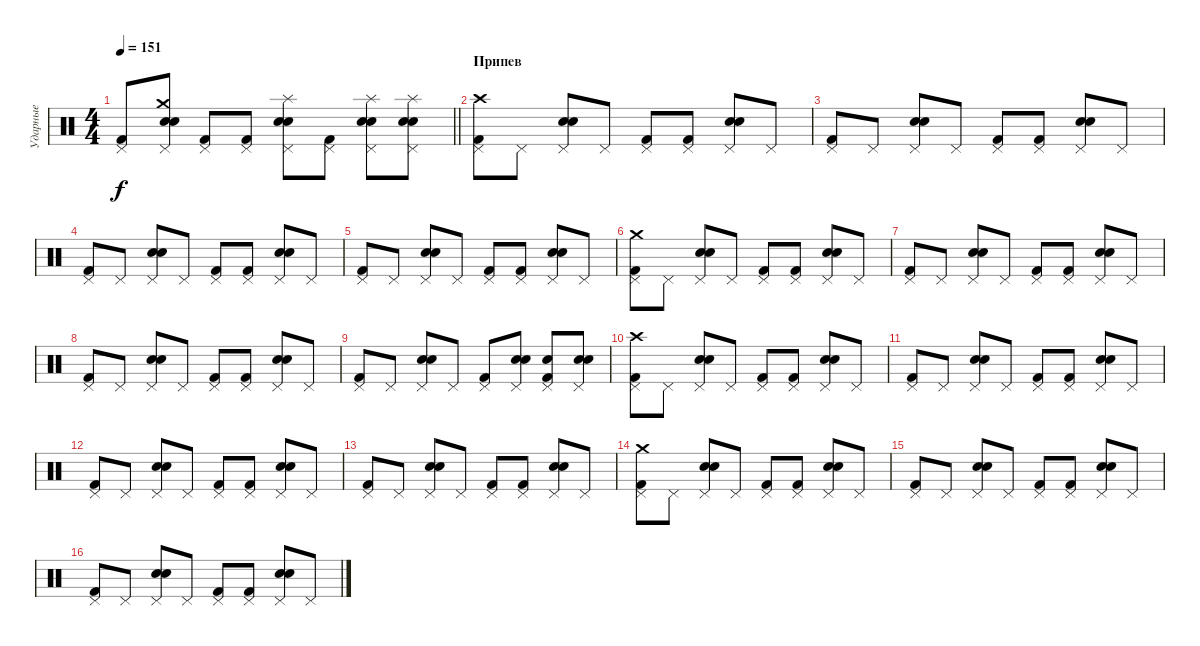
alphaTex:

\track ("Ударные" "Ударные") {instrument percussion}
\staff {score}
\articulation defaults
\ts (4 4)
\tempo 151
\clef neutral
\barLineRight lightlight
\ks c
("Pedal Hi-Hat (hit)" "Kick (hit) 2").8{dy f} ("Pedal Hi-Hat (hit)" "Crash medium (hit)" "Electric Snare (hit)" "Snare (hit) 2").8 ("Pedal Hi-Hat (hit)" "Kick (hit) 2").8 ("Pedal Hi-Hat (hit)" "Kick (hit) 2").8 ("Pedal Hi-Hat (hit)" "Splash (hit)" "Electric Snare (hit)" "Snare (hit) 2").8 ("Pedal Hi-Hat (hit)" "Kick (hit) 2").8 ("Pedal Hi-Hat (hit)" "Splash (hit)" "Electric Snare (hit)" "Snare (hit) 2").8 ("Pedal Hi-Hat (hit)" "Splash (hit)" "Electric Snare (hit)" "Snare (hit) 2").8 |
\section ("" "Припев")
("Pedal Hi-Hat (hit)" "Crash high (hit)" "Kick (hit) 2").8 "Pedal Hi-Hat (hit)".8 ("Pedal Hi-Hat (hit)" "Electric Snare (hit)" "Snare (hit) 2").8 "Pedal Hi-Hat (hit)".8 ("Pedal Hi-Hat (hit)" "Kick (hit) 2").8 ("Pedal Hi-Hat (hit)" "Kick (hit) 2").8 ("Pedal Hi-Hat (hit)" "Electric Snare (hit)" "Snare (hit) 2").8 "Pedal Hi-Hat (hit)".8 |
("Pedal Hi-Hat (hit)" "Kick (hit) 2").8 "Pedal Hi-Hat (hit)".8 ("Pedal Hi-Hat (hit)" "Electric Snare (hit)" "Snare (hit) 2").8 "Pedal Hi-Hat (hit)".8 ("Pedal Hi-Hat (hit)" "Kick (hit) 2").8 ("Pedal Hi-Hat (hit)" "Kick (hit) 2").8 ("Pedal Hi-Hat (hit)" "Electric Snare (hit)" "Snare (hit) 2").8 "Pedal Hi-Hat (hit)".8 |
("Pedal Hi-Hat (hit)" "Kick (hit) 2").8 "Pedal Hi-Hat (hit)".8 ("Pedal Hi-Hat (hit)" "Electric Snare (hit)" "Snare (hit) 2").8 "Pedal Hi-Hat (hit)".8 ("Pedal Hi-Hat (hit)" "Kick (hit) 2").8 ("Pedal Hi-Hat (hit)" "Kick (hit) 2").8 ("Pedal Hi-Hat (hit)" "Electric Snare (hit)" "Snare (hit) 2").8 "Pedal Hi-Hat (hit)".8 |
("Pedal Hi-Hat (hit)" "Kick (hit) 2").8 "Pedal Hi-Hat (hit)".8 ("Pedal Hi-Hat (hit)" "Electric Snare (hit)" "Snare (hit) 2").8 "Pedal Hi-Hat (hit)".8 ("Pedal Hi-Hat (hit)" "Kick (hit) 2").8 ("Pedal Hi-Hat (hit)" "Kick (hit) 2").8 ("Pedal Hi-Hat (hit)" "Electric Snare (hit)" "Snare (hit) 2").8 "Pedal Hi-Hat (hit)".8 |
("Pedal Hi-Hat (hit)" "Crash medium (hit)" "Kick (hit) 2").8 "Pedal Hi-Hat (hit)".8 ("Pedal Hi-Hat (hit)" "Electric Snare (hit)" "Snare (hit) 2").8 "Pedal Hi-Hat (hit)".8 ("Pedal Hi-Hat (hit)" "Kick (hit) 2").8 ("Pedal Hi-Hat (hit)" "Kick (hit) 2").8 ("Pedal Hi-Hat (hit)" "Electric Snare (hit)" "Snare (hit) 2").8 "Pedal Hi-Hat (hit)".8 |
("Pedal Hi-Hat (hit)" "Kick (hit) 2").8 "Pedal Hi-Hat (hit)".8 ("Pedal Hi-Hat (hit)" "Electric Snare (hit)" "Snare (hit) 2").8 "Pedal Hi-Hat (hit)".8 ("Pedal Hi-Hat (hit)" "Kick (hit) 2").8 ("Pedal Hi-Hat (hit)" "Kick (hit) 2").8 ("Pedal Hi-Hat (hit)" "Electric Snare (hit)" "Snare (hit) 2").8 "Pedal Hi-Hat (hit)".8 |
("Pedal Hi-Hat (hit)" "Kick (hit) 2").8 "Pedal Hi-Hat (hit)".8 ("Pedal Hi-Hat (hit)" "Electric Snare (hit)" "Snare (hit) 2").8 "Pedal Hi-Hat (hit)".8 ("Pedal Hi-Hat (hit)" "Kick (hit) 2").8 ("Pedal Hi-Hat (hit)" "Kick (hit) 2").8 ("Pedal Hi-Hat (hit)" "Electric Snare (hit)" "Snare (hit) 2").8 "Pedal Hi-Hat (hit)".8 |
("Pedal Hi-Hat (hit)" "Kick (hit) 2").8 "Pedal Hi-Hat (hit)".8 ("Pedal Hi-Hat (hit)" "Electric Snare (hit)" "Snare (hit) 2").8 "Pedal Hi-Hat (hit)".8 ("Pedal Hi-Hat (hit)" "Kick (hit) 2").8 ("Pedal Hi-Hat (hit)" "Electric Snare (hit)" "Snare (hit) 2").8 ("Pedal Hi-Hat (hit)" "Electric Snare (hit)" "Kick (hit) 2").8 ("Pedal Hi-Hat (hit)" "Electric Snare (hit)" "Snare (hit) 2").8 |
("Pedal Hi-Hat (hit)" "Crash high (hit)" "Kick (hit) 2").8 "Pedal Hi-Hat (hit)".8 ("Pedal Hi-Hat (hit)" "Electric Snare (hit)" "Snare (hit) 2").8 "Pedal Hi-Hat (hit)".8 ("Pedal Hi-Hat (hit)" "Kick (hit) 2").8 ("Pedal Hi-Hat (hit)" "Kick (hit) 2").8 ("Pedal Hi-Hat (hit)" "Electric Snare (hit)" "Snare (hit) 2").8 "Pedal Hi-Hat (hit)".8 |
("Pedal Hi-Hat (hit)" "Kick (hit) 2").8 "Pedal Hi-Hat (hit)".8 ("Pedal Hi-Hat (hit)" "Electric Snare (hit)" "Snare (hit) 2").8 "Pedal Hi-Hat (hit)".8 ("Pedal Hi-Hat (hit)" "Kick (hit) 2").8 ("Pedal Hi-Hat (hit)" "Kick (hit) 2").8 ("Pedal Hi-Hat (hit)" "Electric Snare (hit)" "Snare (hit) 2").8 "Pedal Hi-Hat (hit)".8 |
("Pedal Hi-Hat (hit)" "Kick (hit) 2").8 "Pedal Hi-Hat (hit)".8 ("Pedal Hi-Hat (hit)" "Electric Snare (hit)" "Snare (hit) 2").8 "Pedal Hi-Hat (hit)".8 ("Pedal Hi-Hat (hit)" "Kick (hit) 2").8 ("Pedal Hi-Hat (hit)" "Kick (hit) 2").8 ("Pedal Hi-Hat (hit)" "Electric Snare (hit)" "Snare (hit) 2").8 "Pedal Hi-Hat (hit)".8 |
("Pedal Hi-Hat (hit)" "Kick (hit) 2").8 "Pedal Hi-Hat (hit)".8 ("Pedal Hi-Hat (hit)" "Electric Snare (hit)" "Snare (hit) 2").8 "Pedal Hi-Hat (hit)".8 ("Pedal Hi-Hat (hit)" "Kick (hit) 2").8 ("Pedal Hi-Hat (hit)" "Kick (hit) 2").8 ("Pedal Hi-Hat (hit)" "Electric Snare (hit)" "Snare (hit) 2").8 "Pedal Hi-Hat (hit)".8 |
("Pedal Hi-Hat (hit)" "Crash medium (hit)" "Kick (hit) 2").8 "Pedal Hi-Hat (hit)".8 ("Pedal Hi-Hat (hit)" "Electric Snare (hit)" "Snare (hit) 2").8 "Pedal Hi-Hat (hit)".8 ("Pedal Hi-Hat (hit)" "Kick (hit) 2").8 ("Pedal Hi-Hat (hit)" "Kick (hit) 2").8 ("Pedal Hi-Hat (hit)" "Electric Snare (hit)" "Snare (hit) 2").8 "Pedal Hi-Hat (hit)".8 |
("Pedal Hi-Hat (hit)" "Kick (hit) 2").8 "Pedal Hi-Hat (hit)".8 ("Pedal Hi-Hat (hit)" "Electric Snare (hit)" "Snare (hit) 2").8 "Pedal Hi-Hat (hit)".8 ("Pedal Hi-Hat (hit)" "Kick (hit) 2").8 ("Pedal Hi-Hat (hit)" "Kick (hit) 2").8 ("Pedal Hi-Hat (hit)" "Electric Snare (hit)" "Snare (hit) 2").8 "Pedal Hi-Hat (hit)".8 |
("Pedal Hi-Hat (hit)" "Kick (hit) 2").8 "Pedal Hi-Hat (hit)".8 ("Pedal Hi-Hat (hit)" "Electric Snare (hit)" "Snare (hit) 2").8 "Pedal Hi-Hat (hit)".8 ("Pedal Hi-Hat (hit)" "Kick (hit) 2").8 ("Pedal Hi-Hat (hit)" "Kick (hit) 2").8 ("Pedal Hi-Hat (hit)" "Electric Snare (hit)" "Snare (hit) 2").8 "Pedal Hi-Hat (hit)".8
